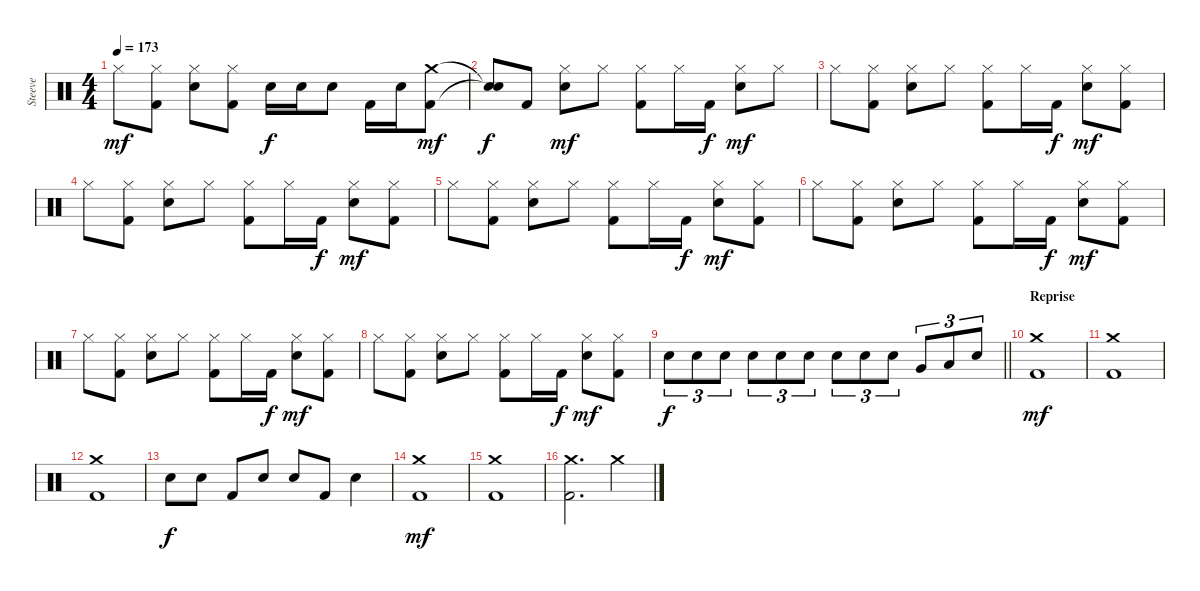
\track ("Steeve" "Steeve") {instrument percussion}
\staff {score}
\articulation defaults
\ts (4 4)
\tempo 173
\clef neutral
\ks c "Hi-Hat (closed)".8{dy mf}
("Hi-Hat (closed)" "Kick (hit) 2").8 ("Hi-Hat (closed)" "Electric Snare (hit)").8 ("Hi-Hat (closed)" "Kick (hit) 2").8 "Electric Snare (hit)".16{dy f} "Electric Snare (hit)".16 "Electric Snare (hit)".8 "Kick (hit) 2".16 "Electric Snare (hit)".16 ("Crash medium (hit)" "Kick (hit) 2").8{dy mf} |
("Snare (hit)"{t} "Snare (hit)"{t}).8{dy f} "Kick (hit) 2".8 ("Hi-Hat (closed)" "Electric Snare (hit)").8{dy mf} "Hi-Hat (closed)".8 ("Hi-Hat (closed)" "Kick (hit) 2").8 "Hi-Hat (closed)".16 "Kick (hit) 2".16{dy f} ("Hi-Hat (closed)" "Electric Snare (hit)").8{dy mf} "Hi-Hat (closed)".8 |
"Hi-Hat (closed)".8 ("Hi-Hat (closed)" "Kick (hit) 2").8 ("Hi-Hat (closed)" "Electric Snare (hit)").8 "Hi-Hat (closed)".8 ("Hi-Hat (closed)" "Kick (hit) 2").8 "Hi-Hat (closed)".16 "Kick (hit) 2".16{dy f} ("Hi-Hat (closed)" "Electric Snare (hit)").8{dy mf} ("Hi-Hat (closed)" "Kick (hit) 2").8 |
"Hi-Hat (closed)".8 ("Hi-Hat (closed)" "Kick (hit) 2").8 ("Hi-Hat (closed)" "Electric Snare (hit)").8 "Hi-Hat (closed)".8 ("Hi-Hat (closed)" "Kick (hit) 2").8 "Hi-Hat (closed)".16 "Kick (hit) 2".16{dy f} ("Hi-Hat (closed)" "Electric Snare (hit)").8{dy mf} ("Hi-Hat (closed)" "Kick (hit) 2").8 |
"Hi-Hat (closed)".8 ("Hi-Hat (closed)" "Kick (hit) 2").8 ("Hi-Hat (closed)" "Electric Snare (hit)").8 "Hi-Hat (closed)".8 ("Hi-Hat (closed)" "Kick (hit) 2").8 "Hi-Hat (closed)".16 "Kick (hit) 2".16{dy f} ("Hi-Hat (closed)" "Electric Snare (hit)").8{dy mf} ("Hi-Hat (closed)" "Kick (hit) 2").8 |
"Hi-Hat (closed)".8 ("Hi-Hat (closed)" "Kick (hit) 2").8 ("Hi-Hat (closed)" "Electric Snare (hit)").8 "Hi-Hat (closed)".8 ("Hi-Hat (closed)" "Kick (hit) 2").8 "Hi-Hat (closed)".16 "Kick (hit) 2".16{dy f} ("Hi-Hat (closed)" "Electric Snare (hit)").8{dy mf} ("Hi-Hat (closed)" "Kick (hit) 2").8 |
"Hi-Hat (closed)".8 ("Hi-Hat (closed)" "Kick (hit) 2").8 ("Hi-Hat (closed)" "Electric Snare (hit)").8 "Hi-Hat (closed)".8 ("Hi-Hat (closed)" "Kick (hit) 2").8 "Hi-Hat (closed)".16 "Kick (hit) 2".16{dy f} ("Hi-Hat (closed)" "Electric Snare (hit)").8{dy mf} ("Hi-Hat (closed)" "Kick (hit) 2").8 |
"Hi-Hat (closed)".8 ("Hi-Hat (closed)" "Kick (hit) 2").8 ("Hi-Hat (closed)" "Electric Snare (hit)").8 "Hi-Hat (closed)".8 ("Hi-Hat (closed)" "Kick (hit) 2").8 "Hi-Hat (closed)".16 "Kick (hit) 2".16{dy f} ("Hi-Hat (closed)" "Electric Snare (hit)").8{dy mf} ("Hi-Hat (closed)" "Kick (hit) 2").8 |
\barLineRight lightlight "Electric Snare (hit)".8{tu (3 2) dy f} "Electric Snare (hit)".8{tu (3 2)} "Electric Snare (hit)".8{tu (3 2)} "Electric Snare (hit)".8{tu (3 2)} "Electric Snare (hit)".8{tu (3 2)} "Electric Snare (hit)".8{tu (3 2)} "Electric Snare (hit)".8{tu (3 2)} "Electric Snare (hit)".8{tu (3 2)} "Electric Snare (hit)".8{tu (3 2)} "Very Low Tom (hit)".8{tu (3 2)} "Low Floor Tom (hit)".8{tu (3 2)} "Electric Snare (hit)".8{tu (3 2)}
|
\section ("" "Reprise")
("Crash medium (hit)" "Kick (hit) 2").1{dy mf} |
("Crash medium (hit)" "Kick (hit) 2").1 |
("Crash medium (hit)" "Kick (hit) 2").1 |
"Electric Snare (hit)".8{dy f} "Electric Snare (hit)".8 "Kick (hit) 2".8 "Electric Snare (hit)".8 "Electric Snare (hit)".8 "Kick (hit) 2".8 "Electric Snare (hit)".4 |
("Crash medium (hit)" "Kick (hit) 2").1{dy mf} |
("Crash medium (hit)" "Kick (hit) 2").1 |
("Crash medium (hit)" "Kick (hit) 2").2{d} "Crash medium (hit)".4
